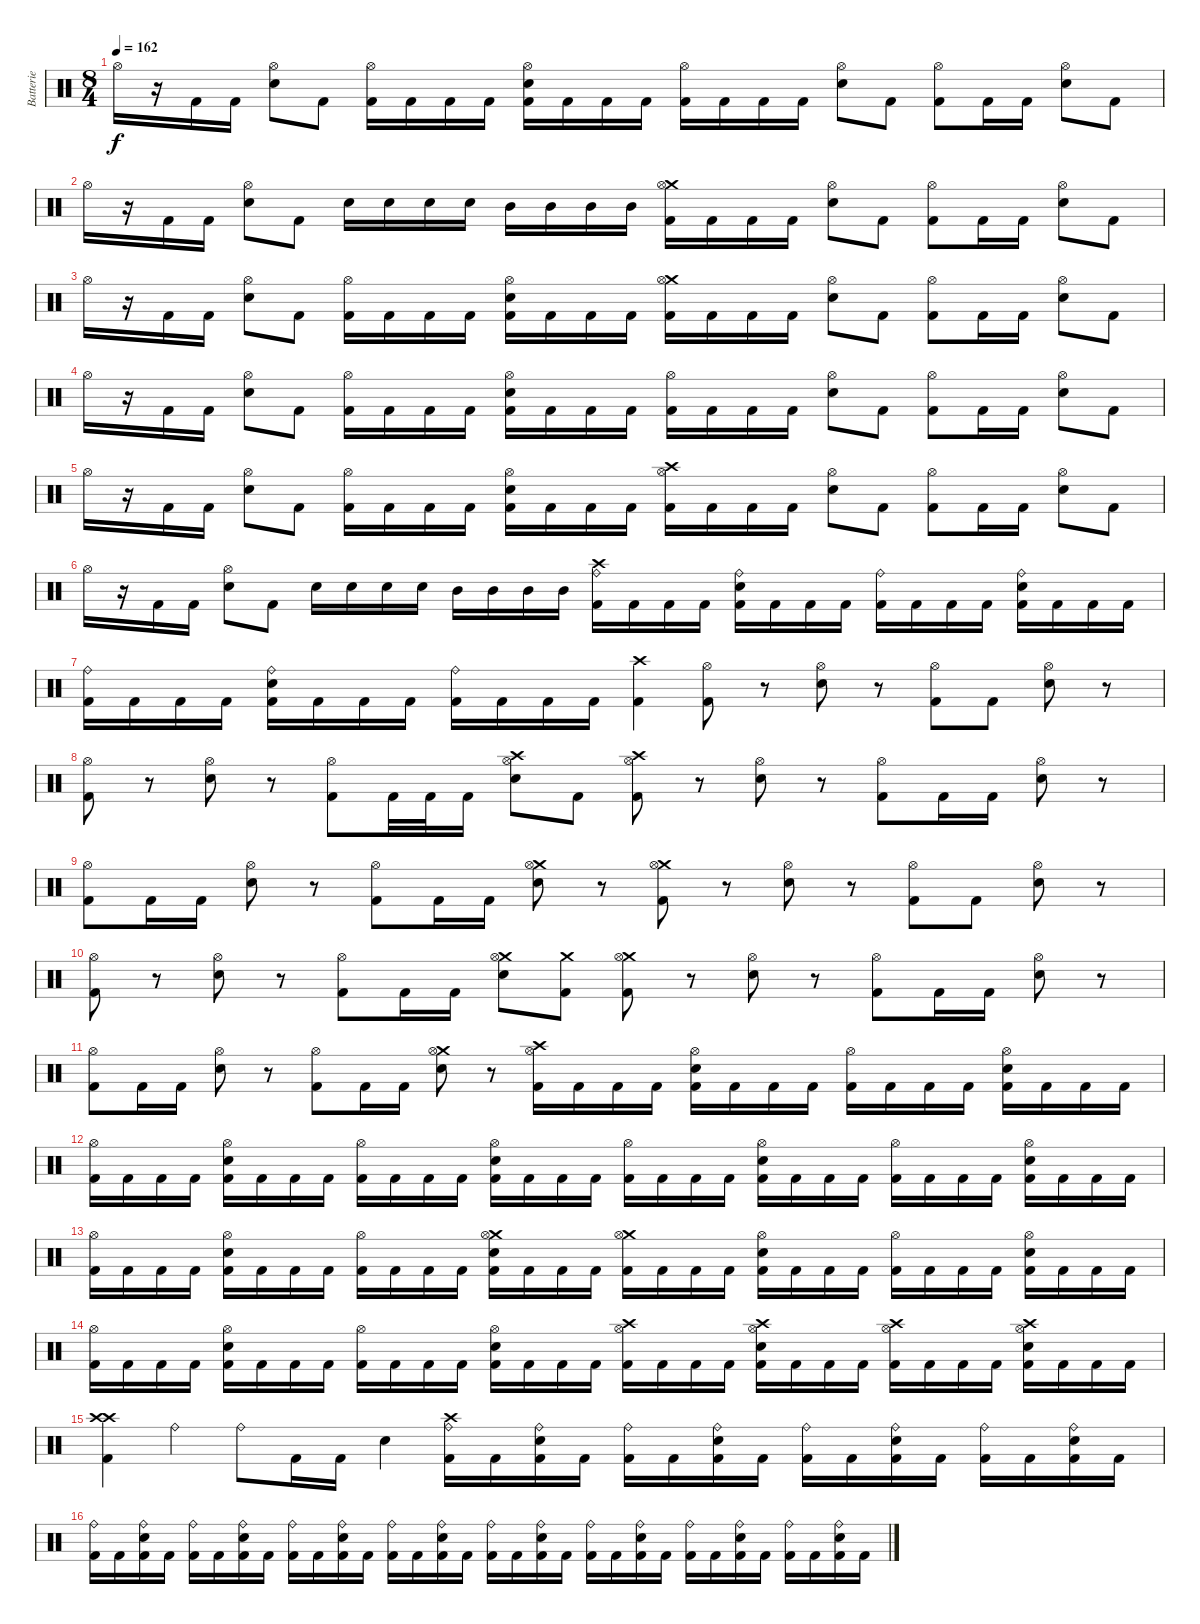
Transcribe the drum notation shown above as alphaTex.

\track ("Batterie" "Batterie") {instrument percussion}
\staff {score}
\articulation defaults
\ts (8 4)
\tempo 162
\clef neutral
\ks c "Hi-Hat (open)".16{dy f}
r.16 "Kick (hit) 2".16 "Kick (hit) 2".16 ("Hi-Hat (open)" "Electric Snare (hit)").8 "Kick (hit) 2".8 ("Hi-Hat (open)" "Kick (hit) 2").16 "Kick (hit) 2".16 "Kick (hit) 2".16 "Kick (hit) 2".16 ("Hi-Hat (open)" "Electric Snare (hit)" "Kick (hit) 2").16 "Kick (hit) 2".16 "Kick (hit) 2".16 "Kick (hit) 2".16 ("Hi-Hat (open)" "Kick (hit) 2").16 "Kick (hit) 2".16 "Kick (hit) 2".16 "Kick (hit) 2".16 ("Hi-Hat (open)" "Electric Snare (hit)").8 "Kick (hit) 2".8 ("Hi-Hat (open)" "Kick (hit) 2").8 "Kick (hit) 2".16 "Kick (hit) 2".16 ("Hi-Hat (open)" "Electric Snare (hit)").8 "Kick (hit) 2".8 |
"Hi-Hat (open)".16 r.16 "Kick (hit) 2".16 "Kick (hit) 2".16 ("Hi-Hat (open)" "Electric Snare (hit)").8 "Kick (hit) 2".8 "Electric Snare (hit)".16 "Electric Snare (hit)".16 "Electric Snare (hit)".16 "Electric Snare (hit)".16 "Mid Tom (hit)".16 "Mid Tom (hit)".16 "Mid Tom (hit)".16 "Mid Tom (hit)".16 ("Crash medium (hit)" "Hi-Hat (open)" "Kick (hit) 2").16 "Kick (hit) 2".16 "Kick (hit) 2".16 "Kick (hit) 2".16 ("Hi-Hat (open)" "Electric Snare (hit)").8 "Kick (hit) 2".8 ("Hi-Hat (open)" "Kick (hit) 2").8 "Kick (hit) 2".16 "Kick (hit) 2".16 ("Hi-Hat (open)" "Electric Snare (hit)").8 "Kick (hit) 2".8 |
"Hi-Hat (open)".16 r.16 "Kick (hit) 2".16 "Kick (hit) 2".16 ("Hi-Hat (open)" "Electric Snare (hit)").8 "Kick (hit) 2".8 ("Hi-Hat (open)" "Kick (hit) 2").16 "Kick (hit) 2".16 "Kick (hit) 2".16 "Kick (hit) 2".16 ("Hi-Hat (open)" "Electric Snare (hit)" "Kick (hit) 2").16 "Kick (hit) 2".16 "Kick (hit) 2".16 "Kick (hit) 2".16 ("Crash medium (hit)" "Hi-Hat (open)" "Kick (hit) 2").16 "Kick (hit) 2".16 "Kick (hit) 2".16 "Kick (hit) 2".16 ("Hi-Hat (open)" "Electric Snare (hit)").8 "Kick (hit) 2".8 ("Hi-Hat (open)" "Kick (hit) 2").8 "Kick (hit) 2".16 "Kick (hit) 2".16 ("Hi-Hat (open)" "Electric Snare (hit)").8 "Kick (hit) 2".8 |
"Hi-Hat (open)".16 r.16 "Kick (hit) 2".16 "Kick (hit) 2".16 ("Hi-Hat (open)" "Electric Snare (hit)").8 "Kick (hit) 2".8 ("Hi-Hat (open)" "Kick (hit) 2").16 "Kick (hit) 2".16 "Kick (hit) 2".16 "Kick (hit) 2".16 ("Hi-Hat (open)" "Electric Snare (hit)" "Kick (hit) 2").16 "Kick (hit) 2".16 "Kick (hit) 2".16 "Kick (hit) 2".16 ("Hi-Hat (open)" "Kick (hit) 2").16 "Kick (hit) 2".16 "Kick (hit) 2".16 "Kick (hit) 2".16 ("Hi-Hat (open)" "Electric Snare (hit)").8 "Kick (hit) 2".8 ("Hi-Hat (open)" "Kick (hit) 2").8 "Kick (hit) 2".16 "Kick (hit) 2".16 ("Hi-Hat (open)" "Electric Snare (hit)").8 "Kick (hit) 2".8 |
"Hi-Hat (open)".16 r.16 "Kick (hit) 2".16 "Kick (hit) 2".16 ("Hi-Hat (open)" "Electric Snare (hit)").8 "Kick (hit) 2".8 ("Hi-Hat (open)" "Kick (hit) 2").16 "Kick (hit) 2".16 "Kick (hit) 2".16 "Kick (hit) 2".16 ("Hi-Hat (open)" "Electric Snare (hit)" "Kick (hit) 2").16 "Kick (hit) 2".16 "Kick (hit) 2".16 "Kick (hit) 2".16 ("Crash high (hit)" "Hi-Hat (open)" "Kick (hit) 2").16 "Kick (hit) 2".16 "Kick (hit) 2".16 "Kick (hit) 2".16 ("Hi-Hat (open)" "Electric Snare (hit)").8 "Kick (hit) 2".8 ("Hi-Hat (open)" "Kick (hit) 2").8 "Kick (hit) 2".16 "Kick (hit) 2".16 ("Hi-Hat (open)" "Electric Snare (hit)").8 "Kick (hit) 2".8 |
"Hi-Hat (open)".16 r.16 "Kick (hit) 2".16 "Kick (hit) 2".16 ("Hi-Hat (open)" "Electric Snare (hit)").8 "Kick (hit) 2".8 "Electric Snare (hit)".16 "Electric Snare (hit)".16 "Electric Snare (hit)".16 "Electric Snare (hit)".16 "Mid Tom (hit)".16 "Mid Tom (hit)".16 "Mid Tom (hit)".16 "Mid Tom (hit)".16 ("Crash high (hit)" "Ride (bell)" "Kick (hit) 2").16 "Kick (hit) 2".16 "Kick (hit) 2".16 "Kick (hit) 2".16 ("Ride (bell)" "Electric Snare (hit)" "Kick (hit) 2").16 "Kick (hit) 2".16 "Kick (hit) 2".16 "Kick (hit) 2".16 ("Ride (bell)" "Kick (hit) 2").16 "Kick (hit) 2".16 "Kick (hit) 2".16 "Kick (hit) 2".16 ("Ride (bell)" "Electric Snare (hit)" "Kick (hit) 2").16 "Kick (hit) 2".16 "Kick (hit) 2".16 "Kick (hit) 2".16 |
("Ride (bell)" "Kick (hit) 2").16 "Kick (hit) 2".16 "Kick (hit) 2".16 "Kick (hit) 2".16 ("Ride (bell)" "Electric Snare (hit)" "Kick (hit) 2").16 "Kick (hit) 2".16 "Kick (hit) 2".16 "Kick (hit) 2".16 ("Ride (bell)" "Kick (hit) 2").16 "Kick (hit) 2".16 "Kick (hit) 2".16 "Kick (hit) 2".16 ("Crash high (hit)" "Kick (hit) 2").4 ("Hi-Hat (open)" "Kick (hit) 2").8 r.8 ("Hi-Hat (open)" "Electric Snare (hit)").8 r.8 ("Hi-Hat (open)" "Kick (hit) 2").8 "Kick (hit) 2".8 ("Hi-Hat (open)" "Electric Snare (hit)").8 r.8 |
("Hi-Hat (open)" "Kick (hit) 2").8 r.8 ("Hi-Hat (open)" "Electric Snare (hit)").8 r.8 ("Hi-Hat (open)" "Kick (hit) 2").8 "Kick (hit) 2".32 "Kick (hit) 2".32 "Kick (hit) 2".16 ("Crash high (hit)" "Hi-Hat (open)" "Electric Snare (hit)").8 "Kick (hit) 2".8 ("Crash high (hit)" "Hi-Hat (open)" "Kick (hit) 2").8 r.8 ("Hi-Hat (open)" "Electric Snare (hit)").8 r.8 ("Hi-Hat (open)" "Kick (hit) 2").8 "Kick (hit) 2".16 "Kick (hit) 2".16 ("Hi-Hat (open)" "Electric Snare (hit)").8 r.8 |
("Hi-Hat (open)" "Kick (hit) 2").8 "Kick (hit) 2".16 "Kick (hit) 2".16 ("Hi-Hat (open)" "Electric Snare (hit)").8 r.8 ("Hi-Hat (open)" "Kick (hit) 2").8 "Kick (hit) 2".16 "Kick (hit) 2".16 ("Crash medium (hit)" "Hi-Hat (open)" "Electric Snare (hit)").8 r.8 ("Crash medium (hit)" "Hi-Hat (open)" "Kick (hit) 2").8 r.8 ("Hi-Hat (open)" "Electric Snare (hit)").8 r.8 ("Hi-Hat (open)" "Kick (hit) 2").8 "Kick (hit) 2".8 ("Hi-Hat (open)" "Electric Snare (hit)").8 r.8 |
("Hi-Hat (open)" "Kick (hit) 2").8 r.8 ("Hi-Hat (open)" "Electric Snare (hit)").8 r.8 ("Hi-Hat (open)" "Kick (hit) 2").8 "Kick (hit) 2".16 "Kick (hit) 2".16 ("Crash medium (hit)" "Hi-Hat (open)" "Electric Snare (hit)").8 ("Crash medium (hit)" "Kick (hit) 2").8 ("Crash medium (hit)" "Hi-Hat (open)" "Kick (hit) 2").8 r.8 ("Hi-Hat (open)" "Electric Snare (hit)").8 r.8 ("Hi-Hat (open)" "Kick (hit) 2").8 "Kick (hit) 2".16 "Kick (hit) 2".16 ("Hi-Hat (open)" "Electric Snare (hit)").8 r.8 |
("Hi-Hat (open)" "Kick (hit) 2").8 "Kick (hit) 2".16 "Kick (hit) 2".16 ("Hi-Hat (open)" "Electric Snare (hit)").8 r.8 ("Hi-Hat (open)" "Kick (hit) 2").8 "Kick (hit) 2".16 "Kick (hit) 2".16 ("Crash medium (hit)" "Hi-Hat (open)" "Electric Snare (hit)").8 r.8 ("Crash high (hit)" "Hi-Hat (open)" "Kick (hit) 2").16 "Kick (hit) 2".16 "Kick (hit) 2".16 "Kick (hit) 2".16 ("Hi-Hat (open)" "Electric Snare (hit)" "Kick (hit) 2").16 "Kick (hit) 2".16 "Kick (hit) 2".16 "Kick (hit) 2".16 ("Hi-Hat (open)" "Kick (hit) 2").16 "Kick (hit) 2".16 "Kick (hit) 2".16 "Kick (hit) 2".16 ("Hi-Hat (open)" "Electric Snare (hit)" "Kick (hit) 2").16 "Kick (hit) 2".16 "Kick (hit) 2".16 "Kick (hit) 2".16 |
("Hi-Hat (open)" "Kick (hit) 2").16 "Kick (hit) 2".16 "Kick (hit) 2".16 "Kick (hit) 2".16 ("Electric Snare (hit)" "Hi-Hat (open)" "Kick (hit) 2").16 "Kick (hit) 2".16 "Kick (hit) 2".16 "Kick (hit) 2".16 ("Hi-Hat (open)" "Kick (hit) 2").16 "Kick (hit) 2".16 "Kick (hit) 2".16 "Kick (hit) 2".16 ("Electric Snare (hit)" "Hi-Hat (open)" "Kick (hit) 2").16 "Kick (hit) 2".16 "Kick (hit) 2".16 "Kick (hit) 2".16 ("Hi-Hat (open)" "Kick (hit) 2").16 "Kick (hit) 2".16 "Kick (hit) 2".16 "Kick (hit) 2".16 ("Electric Snare (hit)" "Hi-Hat (open)" "Kick (hit) 2").16 "Kick (hit) 2".16 "Kick (hit) 2".16 "Kick (hit) 2".16 ("Hi-Hat (open)" "Kick (hit) 2").16 "Kick (hit) 2".16 "Kick (hit) 2".16 "Kick (hit) 2".16 ("Electric Snare (hit)" "Hi-Hat (open)" "Kick (hit) 2").16 "Kick (hit) 2".16 "Kick (hit) 2".16 "Kick (hit) 2".16 |
("Hi-Hat (open)" "Kick (hit) 2").16 "Kick (hit) 2".16 "Kick (hit) 2".16 "Kick (hit) 2".16 ("Electric Snare (hit)" "Hi-Hat (open)" "Kick (hit) 2").16 "Kick (hit) 2".16 "Kick (hit) 2".16 "Kick (hit) 2".16 ("Hi-Hat (open)" "Kick (hit) 2").16 "Kick (hit) 2".16 "Kick (hit) 2".16 "Kick (hit) 2".16 ("Crash medium (hit)" "Electric Snare (hit)" "Hi-Hat (open)" "Kick (hit) 2").16 "Kick (hit) 2".16 "Kick (hit) 2".16 "Kick (hit) 2".16 ("Crash medium (hit)" "Hi-Hat (open)" "Kick (hit) 2").16 "Kick (hit) 2".16 "Kick (hit) 2".16 "Kick (hit) 2".16 ("Electric Snare (hit)" "Hi-Hat (open)" "Kick (hit) 2").16 "Kick (hit) 2".16 "Kick (hit) 2".16 "Kick (hit) 2".16 ("Hi-Hat (open)" "Kick (hit) 2").16 "Kick (hit) 2".16 "Kick (hit) 2".16 "Kick (hit) 2".16 ("Electric Snare (hit)" "Hi-Hat (open)" "Kick (hit) 2").16 "Kick (hit) 2".16 "Kick (hit) 2".16 "Kick (hit) 2".16 |
("Hi-Hat (open)" "Kick (hit) 2").16 "Kick (hit) 2".16 "Kick (hit) 2".16 "Kick (hit) 2".16 ("Electric Snare (hit)" "Hi-Hat (open)" "Kick (hit) 2").16 "Kick (hit) 2".16 "Kick (hit) 2".16 "Kick (hit) 2".16 ("Hi-Hat (open)" "Kick (hit) 2").16 "Kick (hit) 2".16 "Kick (hit) 2".16 "Kick (hit) 2".16 ("Electric Snare (hit)" "Hi-Hat (open)" "Kick (hit) 2").16 "Kick (hit) 2".16 "Kick (hit) 2".16 "Kick (hit) 2".16 ("Crash high (hit)" "Hi-Hat (open)" "Kick (hit) 2").16 "Kick (hit) 2".16 "Kick (hit) 2".16 "Kick (hit) 2".16 ("Crash high (hit)" "Electric Snare (hit)" "Hi-Hat (open)" "Kick (hit) 2").16 "Kick (hit) 2".16 "Kick (hit) 2".16 "Kick (hit) 2".16 ("Crash high (hit)" "Hi-Hat (open)" "Kick (hit) 2").16 "Kick (hit) 2".16 "Kick (hit) 2".16 "Kick (hit) 2".16 ("Crash high (hit)" "Electric Snare (hit)" "Hi-Hat (open)" "Kick (hit) 2").16 "Kick (hit) 2".16 "Kick (hit) 2".16 "Kick (hit) 2".16 |
("Crash high (hit)" "Crash high (hit)" "Kick (hit) 2").4 "Ride (bell)".4 "Ride (bell)".8 "Kick (hit) 2".16 "Kick (hit) 2".16 "Electric Snare (hit)".4 ("Crash high (hit)" "Ride (bell)" "Kick (hit) 2").16 "Kick (hit) 2".16 ("Ride (bell)" "Electric Snare (hit)" "Kick (hit) 2").16 "Kick (hit) 2".16 ("Ride (bell)" "Kick (hit) 2").16 "Kick (hit) 2".16 ("Ride (bell)" "Electric Snare (hit)" "Kick (hit) 2").16 "Kick (hit) 2".16 ("Ride (bell)" "Kick (hit) 2").16 "Kick (hit) 2".16 ("Ride (bell)" "Electric Snare (hit)" "Kick (hit) 2").16 "Kick (hit) 2".16 ("Ride (bell)" "Kick (hit) 2").16 "Kick (hit) 2".16 ("Ride (bell)" "Electric Snare (hit)" "Kick (hit) 2").16 "Kick (hit) 2".16 |
("Ride (bell)" "Kick (hit) 2").16 "Kick (hit) 2".16 ("Ride (bell)" "Electric Snare (hit)" "Kick (hit) 2").16 "Kick (hit) 2".16 ("Ride (bell)" "Kick (hit) 2").16 "Kick (hit) 2".16 ("Ride (bell)" "Electric Snare (hit)" "Kick (hit) 2").16 "Kick (hit) 2".16 ("Ride (bell)" "Kick (hit) 2").16 "Kick (hit) 2".16 ("Ride (bell)" "Electric Snare (hit)" "Kick (hit) 2").16 "Kick (hit) 2".16 ("Ride (bell)" "Kick (hit) 2").16 "Kick (hit) 2".16 ("Ride (bell)" "Electric Snare (hit)" "Kick (hit) 2").16 "Kick (hit) 2".16 ("Ride (bell)" "Kick (hit) 2").16 "Kick (hit) 2".16 ("Ride (bell)" "Electric Snare (hit)" "Kick (hit) 2").16 "Kick (hit) 2".16 ("Ride (bell)" "Kick (hit) 2").16 "Kick (hit) 2".16 ("Ride (bell)" "Electric Snare (hit)" "Kick (hit) 2").16 "Kick (hit) 2".16 ("Ride (bell)" "Kick (hit) 2").16 "Kick (hit) 2".16 ("Ride (bell)" "Electric Snare (hit)" "Kick (hit) 2").16 "Kick (hit) 2".16 ("Ride (bell)" "Kick (hit) 2").16 "Kick (hit) 2".16 ("Ride (bell)" "Electric Snare (hit)" "Kick (hit) 2").16 "Kick (hit) 2".16
